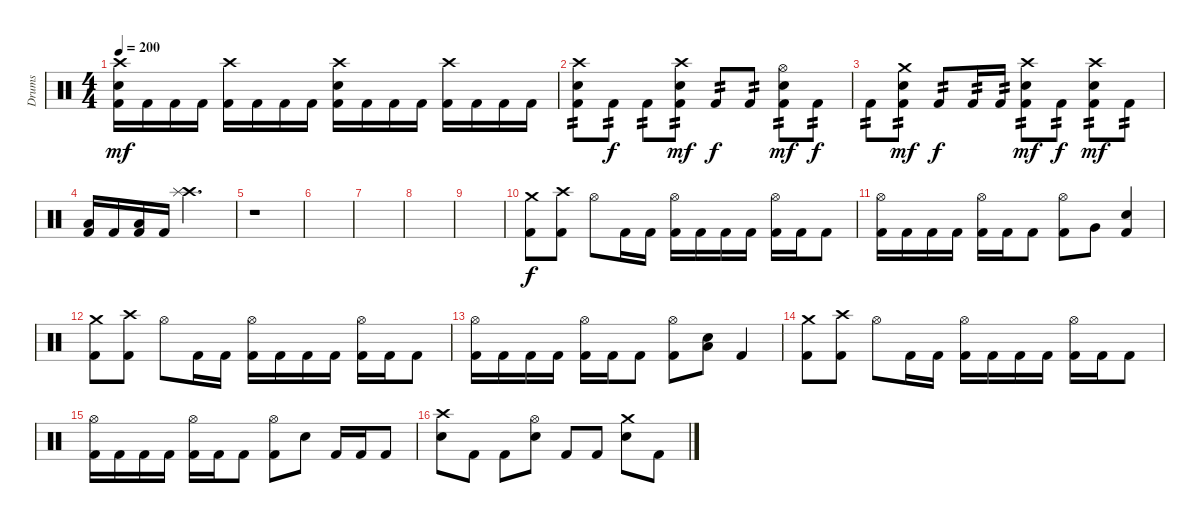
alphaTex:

\track ("Drums" "Drums") {instrument percussion}
\staff {score}
\articulation defaults
\ts (4 4)
\tempo 200
\clef neutral
\ks c
("Crash high (hit)" "Electric Snare (hit)" "Kick (hit) 2").16{dy mf} "Kick (hit) 2".16 "Kick (hit) 2".16 "Kick (hit) 2".16 ("Crash high (hit)" "Kick (hit) 2").16 "Kick (hit) 2".16 "Kick (hit) 2".16 "Kick (hit) 2".16 ("Crash high (hit)" "Electric Snare (hit)" "Kick (hit) 2").16 "Kick (hit) 2".16 "Kick (hit) 2".16 "Kick (hit) 2".16 ("Crash high (hit)" "Kick (hit) 2").16 "Kick (hit) 2".16 "Kick (hit) 2".16 "Kick (hit) 2".16 |
("Crash high (hit)" "Electric Snare (hit)" "Kick (hit) 2").8{tp 2} "Kick (hit) 2".8{tp 2 dy f} "Kick (hit) 2".8{tp 2} ("Crash high (hit)" "Electric Snare (hit)" "Kick (hit) 2").8{tp 2 dy mf} "Kick (hit) 2".8{tp 2 dy f} "Kick (hit) 2".8{tp 2} ("Hi-Hat (open)" "Electric Snare (hit)" "Kick (hit) 2").8{tp 2 dy mf} "Kick (hit) 2".8{tp 2 dy f} |
"Kick (hit) 2".8{tp 2} ("Crash medium (hit)" "Electric Snare (hit)" "Kick (hit) 2").8{tp 2 dy mf} "Kick (hit) 2".8{tp 2 dy f} "Kick (hit) 2".16{tp 2} "Kick (hit) 2".16{tp 2} ("Crash high (hit)" "Electric Snare (hit)" "Kick (hit) 2").8{tp 2 dy mf} "Kick (hit) 2".8{tp 2 dy f} ("Crash high (hit)" "Electric Snare (hit)" "Kick (hit) 2").8{tp 2 dy mf} "Kick (hit) 2".8{tp 2} |
("Low Floor Tom (hit)" "Kick (hit) 2").16 "Kick (hit) 2".16 ("Low Floor Tom (hit)" "Kick (hit) 2").16 "Kick (hit) 2".16 ("Crash high (hit)" "Splash (hit)").2{d} |
r.1 |
|
|
|
|
("Crash medium (hit)" "Kick (hit) 2").8{dy f} ("Crash high (hit)" "Kick (hit) 2").8 "Hi-Hat (open)".8 "Kick (hit) 2".16 "Kick (hit) 2".16 ("Hi-Hat (open)" "Kick (hit) 2").16 "Kick (hit) 2".16 "Kick (hit) 2".16 "Kick (hit) 2".16 ("Hi-Hat (open)" "Kick (hit) 2").16 "Kick (hit) 2".16 "Kick (hit) 2".8 |
("Hi-Hat (open)" "Kick (hit) 2").16 "Kick (hit) 2".16 "Kick (hit) 2".16 "Kick (hit) 2".16 ("Hi-Hat (open)" "Kick (hit) 2").16 "Kick (hit) 2".16 "Kick (hit) 2".8 ("Hi-Hat (open)" "Kick (hit) 2").8 "Very Low Tom (hit)".8 ("Electric Snare (hit)" "Kick (hit) 2").4 |
("Crash medium (hit)" "Kick (hit) 2").8 ("Crash high (hit)" "Kick (hit) 2").8 "Hi-Hat (open)".8 "Kick (hit) 2".16 "Kick (hit) 2".16 ("Hi-Hat (open)" "Kick (hit) 2").16 "Kick (hit) 2".16 "Kick (hit) 2".16 "Kick (hit) 2".16 ("Hi-Hat (open)" "Kick (hit) 2").16 "Kick (hit) 2".16 "Kick (hit) 2".8 |
("Hi-Hat (open)" "Kick (hit) 2").16 "Kick (hit) 2".16 "Kick (hit) 2".16 "Kick (hit) 2".16 ("Hi-Hat (open)" "Kick (hit) 2").16 "Kick (hit) 2".16 "Kick (hit) 2".8 ("Hi-Hat (open)" "Kick (hit) 2").8 ("Low Floor Tom (hit)" "Electric Snare (hit)").8 "Kick (hit) 2".4 |
("Crash medium (hit)" "Kick (hit) 2").8 ("Crash high (hit)" "Kick (hit) 2").8 "Hi-Hat (open)".8 "Kick (hit) 2".16 "Kick (hit) 2".16 ("Hi-Hat (open)" "Kick (hit) 2").16 "Kick (hit) 2".16 "Kick (hit) 2".16 "Kick (hit) 2".16 ("Hi-Hat (open)" "Kick (hit) 2").16 "Kick (hit) 2".16 "Kick (hit) 2".8 |
("Hi-Hat (open)" "Kick (hit) 2").16 "Kick (hit) 2".16 "Kick (hit) 2".16 "Kick (hit) 2".16 ("Hi-Hat (open)" "Kick (hit) 2").16 "Kick (hit) 2".16 "Kick (hit) 2".8 ("Hi-Hat (open)" "Kick (hit) 2").8 "Electric Snare (hit)".8 "Kick (hit) 2".16 "Kick (hit) 2".16 "Kick (hit) 2".8 |
("Crash high (hit)" "Electric Snare (hit)").8 "Kick (hit) 2".8 "Kick (hit) 2".8 ("Hi-Hat (open)" "Electric Snare (hit)").8 "Kick (hit) 2".8 "Kick (hit) 2".8 ("Crash medium (hit)" "Electric Snare (hit)").8 "Kick (hit) 2".8
